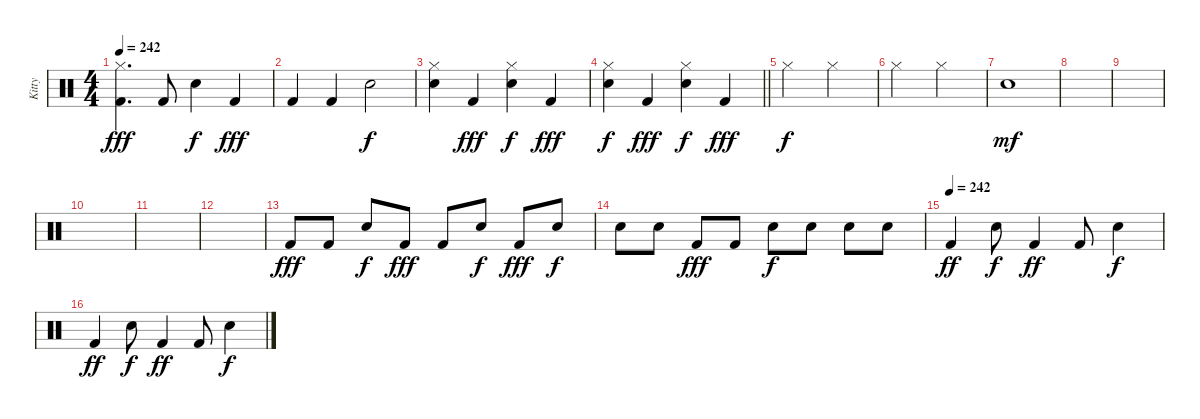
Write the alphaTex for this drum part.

\track ("Kitty" "Kitty") {instrument percussion}
\staff {score}
\articulation defaults
\ts (4 4)
\tempo 242
\clef neutral
\ks c
("Hi-Hat (closed)" "Kick (hit) 2").4{d dy fff} "Kick (hit) 2".8 "Electric Snare (hit)".4{dy f} "Kick (hit) 2".4{dy fff} |
"Kick (hit) 2".4 "Kick (hit) 2".4 "Electric Snare (hit)".2{dy f} |
("Hi-Hat (closed)" "Electric Snare (hit)").4 "Kick (hit) 2".4{dy fff} ("Hi-Hat (closed)" "Electric Snare (hit)").4{dy f} "Kick (hit) 2".4{dy fff} |
\barLineRight lightlight
("Hi-Hat (closed)" "Electric Snare (hit)").4{dy f} "Kick (hit) 2".4{dy fff} ("Hi-Hat (closed)" "Electric Snare (hit)").4{dy f} "Kick (hit) 2".4{dy fff} |
"Hi-Hat (closed)".2{dy f} "Hi-Hat (closed)".2 |
"Hi-Hat (closed)".2 "Hi-Hat (closed)".2 |
"Electric Snare (hit)".1{dy mf} |
|
|
|
|
|
"Kick (hit) 2".8{dy fff volume 14} "Kick (hit) 2".8 "Electric Snare (hit)".8{dy f} "Kick (hit) 2".8{dy fff} "Kick (hit) 2".8 "Electric Snare (hit)".8{dy f} "Kick (hit) 2".8{dy fff} "Electric Snare (hit)".8{dy f} |
"Electric Snare (hit)".8{volume 14} "Electric Snare (hit)".8 "Kick (hit) 2".8{dy fff} "Kick (hit) 2".8 "Electric Snare (hit)".8{dy f} "Electric Snare (hit)".8 "Electric Snare (hit)".8 "Electric Snare (hit)".8 |
\tempo (242)
"Kick (hit) 2".4{dy ff volume 15} "Electric Snare (hit)".8{dy f} "Kick (hit) 2".4{dy ff} "Kick (hit) 2".8 "Electric Snare (hit)".4{dy f} |
"Kick (hit) 2".4{dy ff} "Electric Snare (hit)".8{dy f} "Kick (hit) 2".4{dy ff} "Kick (hit) 2".8 "Electric Snare (hit)".4{dy f}
